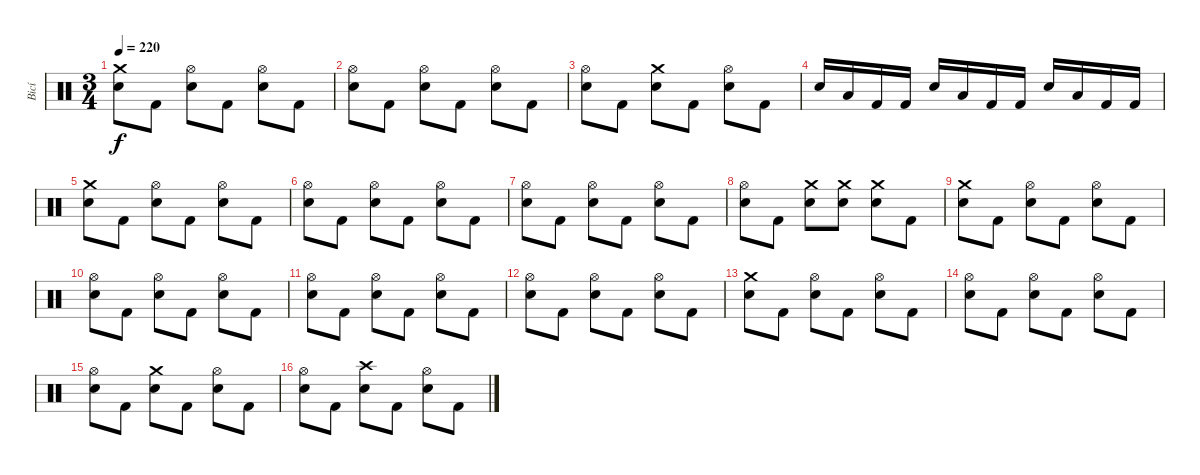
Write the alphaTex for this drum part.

\track ("Bicí" "Bicí") {instrument percussion}
\staff {score}
\articulation defaults
\ts (3 4)
\tempo 220
\clef neutral
\ks c
("Crash medium (hit)" "Electric Snare (hit)").8{dy f} "Kick (hit) 2".8 ("Hi-Hat (open)" "Electric Snare (hit)").8 "Kick (hit) 2".8 ("Hi-Hat (open)" "Electric Snare (hit)").8 "Kick (hit) 2".8 |
("Hi-Hat (open)" "Electric Snare (hit)").8 "Kick (hit) 2".8 ("Hi-Hat (open)" "Electric Snare (hit)").8 "Kick (hit) 2".8 ("Hi-Hat (open)" "Electric Snare (hit)").8 "Kick (hit) 2".8 |
("Hi-Hat (open)" "Electric Snare (hit)").8 "Kick (hit) 2".8 ("Crash medium (hit)" "Electric Snare (hit)").8 "Kick (hit) 2".8 ("Hi-Hat (open)" "Electric Snare (hit)").8 "Kick (hit) 2".8 |
"Electric Snare (hit)".16 "Low Tom (hit)".16 "Kick (hit) 2".16 "Kick (hit) 2".16 "Electric Snare (hit)".16 "Low Tom (hit)".16 "Kick (hit) 2".16 "Kick (hit) 2".16 "Electric Snare (hit)".16 "Low Tom (hit)".16 "Kick (hit) 2".16 "Kick (hit) 2".16 |
("Crash medium (hit)" "Electric Snare (hit)").8 "Kick (hit) 2".8 ("Hi-Hat (open)" "Electric Snare (hit)").8 "Kick (hit) 2".8 ("Hi-Hat (open)" "Electric Snare (hit)").8 "Kick (hit) 2".8 |
("Hi-Hat (open)" "Electric Snare (hit)").8 "Kick (hit) 2".8 ("Hi-Hat (open)" "Electric Snare (hit)").8 "Kick (hit) 2".8 ("Hi-Hat (open)" "Electric Snare (hit)").8 "Kick (hit) 2".8 |
("Hi-Hat (open)" "Electric Snare (hit)").8 "Kick (hit) 2".8 ("Hi-Hat (open)" "Electric Snare (hit)").8 "Kick (hit) 2".8 ("Hi-Hat (open)" "Electric Snare (hit)").8 "Kick (hit) 2".8 |
("Hi-Hat (open)" "Electric Snare (hit)").8 "Kick (hit) 2".8 ("Crash medium (hit)" "Electric Snare (hit)").8 ("Crash medium (hit)" "Electric Snare (hit)").8 ("Crash medium (hit)" "Electric Snare (hit)").8 "Kick (hit) 2".8 |
("Crash medium (hit)" "Electric Snare (hit)").8 "Kick (hit) 2".8 ("Hi-Hat (open)" "Electric Snare (hit)").8 "Kick (hit) 2".8 ("Hi-Hat (open)" "Electric Snare (hit)").8 "Kick (hit) 2".8 |
("Hi-Hat (open)" "Electric Snare (hit)").8 "Kick (hit) 2".8 ("Hi-Hat (open)" "Electric Snare (hit)").8 "Kick (hit) 2".8 ("Hi-Hat (open)" "Electric Snare (hit)").8 "Kick (hit) 2".8 |
("Hi-Hat (open)" "Electric Snare (hit)").8 "Kick (hit) 2".8 ("Hi-Hat (open)" "Electric Snare (hit)").8 "Kick (hit) 2".8 ("Hi-Hat (open)" "Electric Snare (hit)").8 "Kick (hit) 2".8 |
("Hi-Hat (open)" "Electric Snare (hit)").8 "Kick (hit) 2".8 ("Hi-Hat (open)" "Electric Snare (hit)").8 "Kick (hit) 2".8 ("Hi-Hat (open)" "Electric Snare (hit)").8 "Kick (hit) 2".8 |
("Crash medium (hit)" "Electric Snare (hit)").8 "Kick (hit) 2".8 ("Hi-Hat (open)" "Electric Snare (hit)").8 "Kick (hit) 2".8 ("Hi-Hat (open)" "Electric Snare (hit)").8 "Kick (hit) 2".8 |
("Hi-Hat (open)" "Electric Snare (hit)").8 "Kick (hit) 2".8 ("Hi-Hat (open)" "Electric Snare (hit)").8 "Kick (hit) 2".8 ("Hi-Hat (open)" "Electric Snare (hit)").8 "Kick (hit) 2".8 |
("Hi-Hat (open)" "Electric Snare (hit)").8 "Kick (hit) 2".8 ("Crash medium (hit)" "Electric Snare (hit)").8 "Kick (hit) 2".8 ("Hi-Hat (open)" "Electric Snare (hit)").8 "Kick (hit) 2".8 |
("Hi-Hat (open)" "Electric Snare (hit)").8 "Kick (hit) 2".8 ("Crash high (hit)" "Electric Snare (hit)").8 "Kick (hit) 2".8 ("Hi-Hat (open)" "Electric Snare (hit)").8 "Kick (hit) 2".8
